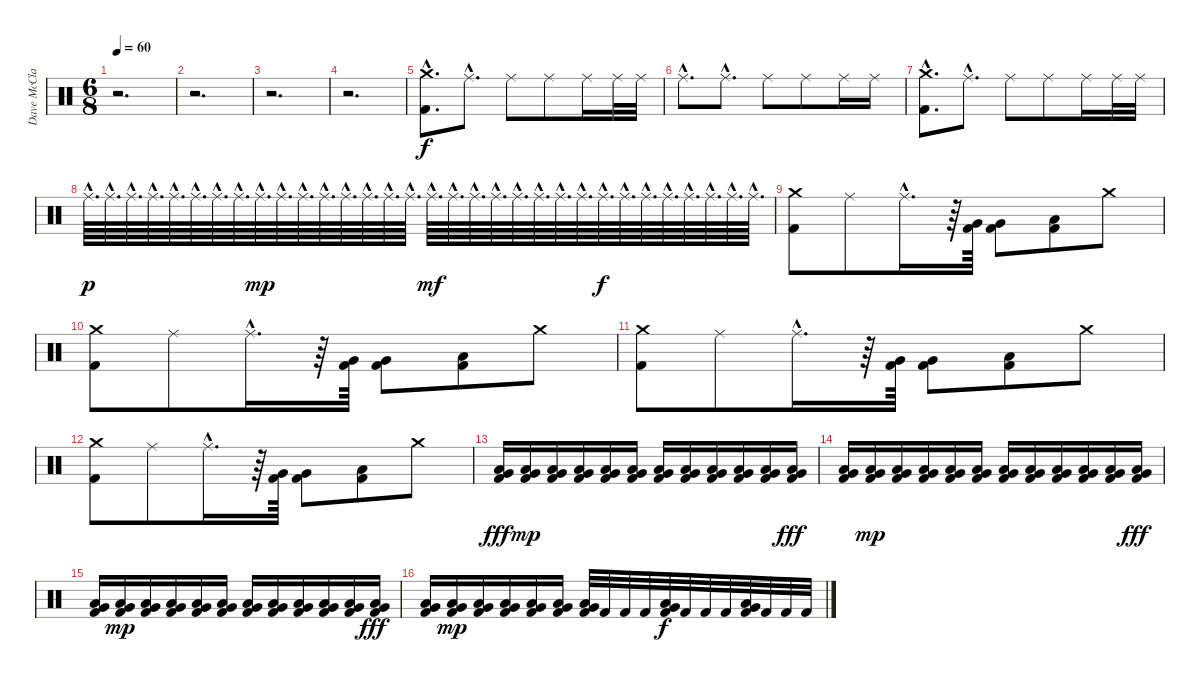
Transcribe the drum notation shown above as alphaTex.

\track ("Dave McClain" "Dave McCla") {instrument percussion}
\staff {score}
\articulation defaults
\ts (6 8)
\tempo 60
\clef neutral
\ks c
r.2{d dy f} |
r.2{d} |
r.2{d} |
r.2{d} |
("Crash medium (hit)"{hac} "Kick (hit) 2"{hac}).8{d} "Ride (middle)"{hac}.8{d} "Ride (middle)".8 "Ride (middle)".8 "Ride (middle)".16 "Ride (middle)".32 "Ride (middle)".32 |
"Ride (middle)"{hac}.8{d} "Ride (middle)"{hac}.8{d} "Ride (middle)".8 "Ride (middle)".8 "Ride (middle)".16 "Ride (middle)".16 |
("Crash medium (hit)"{hac} "Kick (hit) 2"{hac}).8{d} "Ride (middle)"{hac}.8{d} "Ride (middle)".8 "Ride (middle)".8 "Ride (middle)".16 "Ride (middle)".32 "Ride (middle)".32 |
"Ride (middle)"{hac}.64{d dy p} "Ride (middle)"{hac}.64{d} "Ride (middle)"{hac}.64{d} "Ride (middle)"{hac}.64{d} "Ride (middle)"{hac}.64{d} "Ride (middle)"{hac}.64{d} "Ride (middle)"{hac}.64{d} "Ride (middle)"{hac}.64{d} "Ride (middle)"{hac}.64{d dy mp} "Ride (middle)"{hac}.64{d} "Ride (middle)"{hac}.64{d} "Ride (middle)"{hac}.64{d} "Ride (middle)"{hac}.64{d} "Ride (middle)"{hac}.64{d} "Ride (middle)"{hac}.64{d} "Ride (middle)"{hac}.64{d} "Ride (middle)"{hac}.64{d dy mf} "Ride (middle)"{hac}.64{d} "Ride (middle)"{hac}.64{d} "Ride (middle)"{hac}.64{d} "Ride (middle)"{hac}.64{d} "Ride (middle)"{hac}.64{d} "Ride (middle)"{hac}.64{d} "Ride (middle)"{hac}.64{d} "Ride (middle)"{hac}.64{d dy f} "Ride (middle)"{hac}.64{d} "Ride (middle)"{hac}.64{d} "Ride (middle)"{hac}.64{d} "Ride (middle)"{hac}.64{d} "Ride (middle)"{hac}.64{d} "Ride (middle)"{hac}.64{d} "Ride (middle)"{hac}.64{d} |
("Crash medium (hit)" "Kick (hit) 2").8 "Ride (middle)".8 "Ride (middle)"{hac}.16{d} r.64 ("Very Low Tom (hit)" "Kick (hit) 2").64 ("Very Low Tom (hit)" "Kick (hit) 2").8 ("Low Floor Tom (hit)" "Kick (hit) 2").8 "Crash medium (hit)".8 |
("Crash medium (hit)" "Kick (hit) 2").8 "Ride (middle)".8 "Ride (middle)"{hac}.16{d} r.64 ("Very Low Tom (hit)" "Kick (hit) 2").64 ("Very Low Tom (hit)" "Kick (hit) 2").8 ("Low Floor Tom (hit)" "Kick (hit) 2").8 "Crash medium (hit)".8 |
("Crash medium (hit)" "Kick (hit) 2").8 "Ride (middle)".8 "Ride (middle)"{hac}.16{d} r.64 ("Very Low Tom (hit)" "Kick (hit) 2").64 ("Very Low Tom (hit)" "Kick (hit) 2").8 ("Low Floor Tom (hit)" "Kick (hit) 2").8 "Crash medium (hit)".8 |
("Crash medium (hit)" "Kick (hit) 2").8 "Ride (middle)".8 "Ride (middle)"{hac}.16{d} r.64 ("Very Low Tom (hit)" "Kick (hit) 2").64 ("Very Low Tom (hit)" "Kick (hit) 2").8 ("Low Floor Tom (hit)" "Kick (hit) 2").8 "Crash medium (hit)".8 |
("Very Low Tom (hit)" "Low Floor Tom (hit)" "Kick (hit) 2").16{dy fff} ("Very Low Tom (hit)" "Low Floor Tom (hit)" "Kick (hit) 2").16{dy mp} ("Very Low Tom (hit)" "Low Floor Tom (hit)" "Kick (hit) 2").16 ("Very Low Tom (hit)" "Low Floor Tom (hit)" "Kick (hit) 2").16 ("Very Low Tom (hit)" "Low Floor Tom (hit)" "Kick (hit) 2").16 ("Very Low Tom (hit)" "Low Floor Tom (hit)" "Kick (hit) 2").16 ("Very Low Tom (hit)" "Low Floor Tom (hit)" "Kick (hit) 2").16 ("Very Low Tom (hit)" "Low Floor Tom (hit)" "Kick (hit) 2").16 ("Very Low Tom (hit)" "Low Floor Tom (hit)" "Kick (hit) 2").16 ("Very Low Tom (hit)" "Low Floor Tom (hit)" "Kick (hit) 2").16 ("Very Low Tom (hit)" "Low Floor Tom (hit)" "Kick (hit) 2").16 ("Very Low Tom (hit)" "Low Floor Tom (hit)" "Kick (hit) 2").16{dy fff} |
("Very Low Tom (hit)" "Low Floor Tom (hit)" "Kick (hit) 2").16 ("Very Low Tom (hit)" "Low Floor Tom (hit)" "Kick (hit) 2").16{dy mp} ("Very Low Tom (hit)" "Low Floor Tom (hit)" "Kick (hit) 2").16 ("Very Low Tom (hit)" "Low Floor Tom (hit)" "Kick (hit) 2").16 ("Very Low Tom (hit)" "Low Floor Tom (hit)" "Kick (hit) 2").16 ("Very Low Tom (hit)" "Low Floor Tom (hit)" "Kick (hit) 2").16 ("Very Low Tom (hit)" "Low Floor Tom (hit)" "Kick (hit) 2").16 ("Very Low Tom (hit)" "Low Floor Tom (hit)" "Kick (hit) 2").16 ("Very Low Tom (hit)" "Low Floor Tom (hit)" "Kick (hit) 2").16 ("Very Low Tom (hit)" "Low Floor Tom (hit)" "Kick (hit) 2").16 ("Very Low Tom (hit)" "Low Floor Tom (hit)" "Kick (hit) 2").16 ("Very Low Tom (hit)" "Low Floor Tom (hit)" "Kick (hit) 2").16{dy fff} |
("Very Low Tom (hit)" "Low Floor Tom (hit)" "Kick (hit) 2").16 ("Very Low Tom (hit)" "Low Floor Tom (hit)" "Kick (hit) 2").16{dy mp} ("Very Low Tom (hit)" "Low Floor Tom (hit)" "Kick (hit) 2").16 ("Very Low Tom (hit)" "Low Floor Tom (hit)" "Kick (hit) 2").16 ("Very Low Tom (hit)" "Low Floor Tom (hit)" "Kick (hit) 2").16 ("Very Low Tom (hit)" "Low Floor Tom (hit)" "Kick (hit) 2").16 ("Very Low Tom (hit)" "Low Floor Tom (hit)" "Kick (hit) 2").16 ("Very Low Tom (hit)" "Low Floor Tom (hit)" "Kick (hit) 2").16 ("Very Low Tom (hit)" "Low Floor Tom (hit)" "Kick (hit) 2").16 ("Very Low Tom (hit)" "Low Floor Tom (hit)" "Kick (hit) 2").16 ("Very Low Tom (hit)" "Low Floor Tom (hit)" "Kick (hit) 2").16 ("Very Low Tom (hit)" "Low Floor Tom (hit)" "Kick (hit) 2").16{dy fff} |
("Very Low Tom (hit)" "Low Floor Tom (hit)" "Kick (hit) 2").16 ("Very Low Tom (hit)" "Low Floor Tom (hit)" "Kick (hit) 2").16{dy mp} ("Very Low Tom (hit)" "Low Floor Tom (hit)" "Kick (hit) 2").16 ("Very Low Tom (hit)" "Low Floor Tom (hit)" "Kick (hit) 2").16 ("Very Low Tom (hit)" "Low Floor Tom (hit)" "Kick (hit) 2").16 ("Very Low Tom (hit)" "Low Floor Tom (hit)" "Kick (hit) 2").16 ("Very Low Tom (hit)" "Low Floor Tom (hit)" "Kick (hit) 2").32 "Kick (hit) 2".32 "Kick (hit) 2".32 "Kick (hit) 2".32 ("Very Low Tom (hit)" "Low Floor Tom (hit)" "Kick (hit) 2").32{dy f} "Kick (hit) 2".32 "Kick (hit) 2".32 "Kick (hit) 2".32 ("Very Low Tom (hit)" "Low Floor Tom (hit)" "Kick (hit) 2").32 "Kick (hit) 2".32 "Kick (hit) 2".32 "Kick (hit) 2".32
